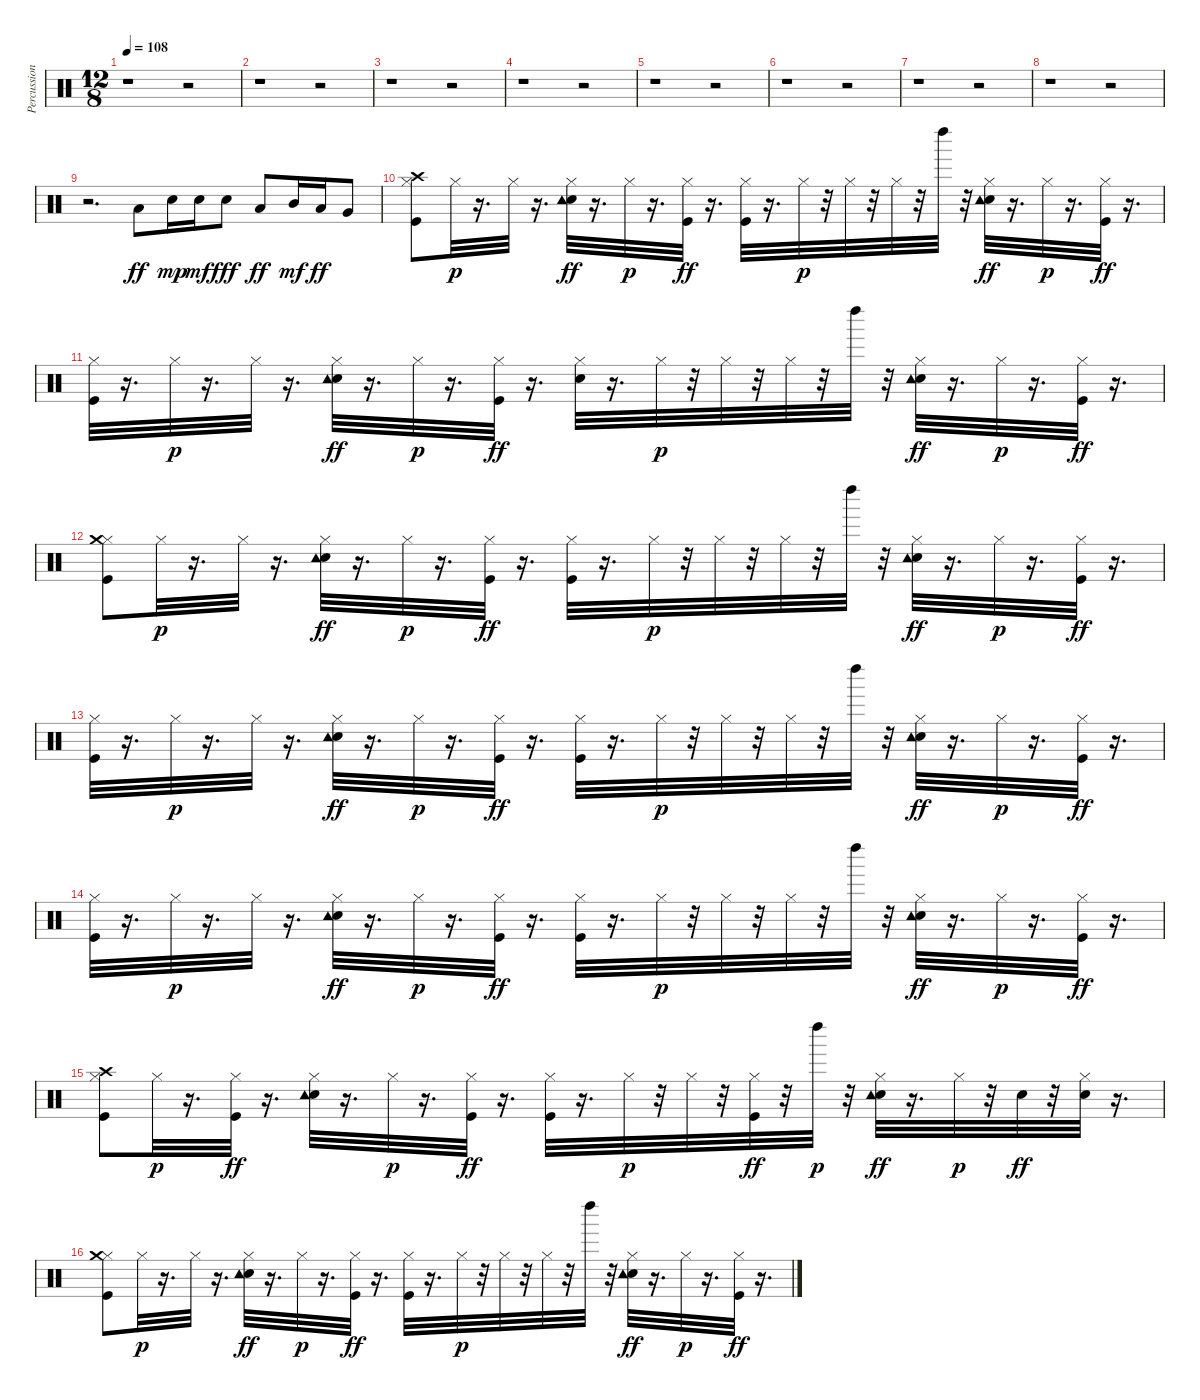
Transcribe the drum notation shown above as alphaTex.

\track ("Percussion" "Percussion") {instrument percussion}
\staff {score}
\articulation defaults
\ts (12 8)
\tempo 108
\clef neutral
\ks c
r.1{dy ff} r.2 |
r.1 r.2 |
r.1 r.2 |
r.1 r.2 |
r.1 r.2 |
r.1 r.2 |
r.1 r.2 |
r.1 r.2 |
r.2{d} "Low Tom (hit)".8 "Snare (hit) 2".16{dy mp} "Snare (hit) 2".16{dy mf} "Snare (hit) 2".8{dy fff} "Low Tom (hit)".8{dy ff} "Mid Tom (hit)".16{dy mf} "Low Tom (hit)".16{dy ff} "Very Low Tom (hit)".8 |
("Hi-Hat (closed)" "Kick (hit)" "Crash high (hit)").8 "Hi-Hat (closed)".32{dy p} r.16{d} "Hi-Hat (closed)".32 r.16{d} ("Hi-Hat (closed)" "Snare (hit) 2" "Tambourine (hit)").32{dy ff} r.16{d} "Hi-Hat (closed)".32{dy p} r.16{d} ("Hi-Hat (closed)" "Kick (hit)").32{dy ff} r.16{d} ("Hi-Hat (closed)" "Kick (hit)").32 r.16{d} "Hi-Hat (closed)".32{dy p} r.32 "Hi-Hat (closed)".32 r.32 "Hi-Hat (closed)".32 r.32 "Left Maraca (hit)".32 r.32 ("Hi-Hat (closed)" "Snare (hit) 2" "Tambourine (hit)").32{dy ff} r.16{d} "Hi-Hat (closed)".32{dy p} r.16{d} ("Hi-Hat (closed)" "Kick (hit)").32{dy ff} r.16{d} |
("Hi-Hat (closed)" "Kick (hit)").32 r.16{d} "Hi-Hat (closed)".32{dy p} r.16{d} "Hi-Hat (closed)".32 r.16{d} ("Hi-Hat (closed)" "Snare (hit) 2" "Tambourine (hit)").32{dy ff} r.16{d} "Hi-Hat (closed)".32{dy p} r.16{d} ("Hi-Hat (closed)" "Kick (hit)").32{dy ff} r.16{d} ("Hi-Hat (closed)" "Snare (hit) 2").32 r.16{d} "Hi-Hat (closed)".32{dy p} r.32 "Hi-Hat (closed)".32 r.32 "Hi-Hat (closed)".32 r.32 "Left Maraca (hit)".32 r.32 ("Hi-Hat (closed)" "Snare (hit) 2" "Tambourine (hit)").32{dy ff} r.16{d} "Hi-Hat (closed)".32{dy p} r.16{d} ("Hi-Hat (closed)" "Kick (hit)").32{dy ff} r.16{d} |
("Hi-Hat (closed)" "Kick (hit)" "Crash medium (hit)").8 "Hi-Hat (closed)".32{dy p} r.16{d} "Hi-Hat (closed)".32 r.16{d} ("Hi-Hat (closed)" "Snare (hit) 2" "Tambourine (hit)").32{dy ff} r.16{d} "Hi-Hat (closed)".32{dy p} r.16{d} ("Hi-Hat (closed)" "Kick (hit)").32{dy ff} r.16{d} ("Hi-Hat (closed)" "Kick (hit)").32 r.16{d} "Hi-Hat (closed)".32{dy p} r.32 "Hi-Hat (closed)".32 r.32 "Hi-Hat (closed)".32 r.32 "Left Maraca (hit)".32 r.32 ("Hi-Hat (closed)" "Snare (hit) 2" "Tambourine (hit)").32{dy ff} r.16{d} "Hi-Hat (closed)".32{dy p} r.16{d} ("Hi-Hat (closed)" "Kick (hit)").32{dy ff} r.16{d} |
("Hi-Hat (closed)" "Kick (hit)").32 r.16{d} "Hi-Hat (closed)".32{dy p} r.16{d} "Hi-Hat (closed)".32 r.16{d} ("Hi-Hat (closed)" "Snare (hit) 2" "Tambourine (hit)").32{dy ff} r.16{d} "Hi-Hat (closed)".32{dy p} r.16{d} ("Hi-Hat (closed)" "Kick (hit)").32{dy ff} r.16{d} ("Hi-Hat (closed)" "Kick (hit)").32 r.16{d} "Hi-Hat (closed)".32{dy p} r.32 "Hi-Hat (closed)".32 r.32 "Hi-Hat (closed)".32 r.32 "Left Maraca (hit)".32 r.32 ("Hi-Hat (closed)" "Snare (hit) 2" "Tambourine (hit)").32{dy ff} r.16{d} "Hi-Hat (closed)".32{dy p} r.16{d} ("Hi-Hat (closed)" "Kick (hit)").32{dy ff} r.16{d} |
("Hi-Hat (closed)" "Kick (hit)").32 r.16{d} "Hi-Hat (closed)".32{dy p} r.16{d} "Hi-Hat (closed)".32 r.16{d} ("Hi-Hat (closed)" "Snare (hit) 2" "Tambourine (hit)").32{dy ff} r.16{d} "Hi-Hat (closed)".32{dy p} r.16{d} ("Hi-Hat (closed)" "Kick (hit)").32{dy ff} r.16{d} ("Hi-Hat (closed)" "Kick (hit)").32 r.16{d} "Hi-Hat (closed)".32{dy p} r.32 "Hi-Hat (closed)".32 r.32 "Hi-Hat (closed)".32 r.32 "Left Maraca (hit)".32 r.32 ("Hi-Hat (closed)" "Snare (hit) 2" "Tambourine (hit)").32{dy ff} r.16{d} "Hi-Hat (closed)".32{dy p} r.16{d} ("Hi-Hat (closed)" "Kick (hit)").32{dy ff} r.16{d} |
("Hi-Hat (closed)" "Kick (hit)" "Crash high (hit)").8 "Hi-Hat (closed)".32{dy p} r.16{d} ("Hi-Hat (closed)" "Kick (hit)").32{dy ff} r.16{d} ("Hi-Hat (closed)" "Snare (hit) 2" "Tambourine (hit)").32 r.16{d} "Hi-Hat (closed)".32{dy p} r.16{d} ("Hi-Hat (closed)" "Kick (hit)").32{dy ff} r.16{d} ("Hi-Hat (closed)" "Kick (hit)").32 r.16{d} "Hi-Hat (closed)".32{dy p} r.32 "Hi-Hat (closed)".32 r.32 ("Hi-Hat (closed)" "Kick (hit)").32{dy ff} r.32 "Left Maraca (hit)".32{dy p} r.32 ("Hi-Hat (closed)" "Snare (hit) 2" "Tambourine (hit)").32{dy ff} r.16{d} "Hi-Hat (closed)".32{dy p} r.32 "Snare (hit) 2".32{dy ff} r.32 ("Hi-Hat (closed)" "Snare (hit) 2").32 r.16{d} |
("Hi-Hat (closed)" "Kick (hit)" "Crash medium (hit)").8 "Hi-Hat (closed)".32{dy p} r.16{d} "Hi-Hat (closed)".32 r.16{d} ("Hi-Hat (closed)" "Snare (hit) 2" "Tambourine (hit)").32{dy ff} r.16{d} "Hi-Hat (closed)".32{dy p} r.16{d} ("Hi-Hat (closed)" "Kick (hit)").32{dy ff} r.16{d} ("Hi-Hat (closed)" "Kick (hit)").32 r.16{d} "Hi-Hat (closed)".32{dy p} r.32 "Hi-Hat (closed)".32 r.32 "Hi-Hat (closed)".32 r.32 "Left Maraca (hit)".32 r.32 ("Hi-Hat (closed)" "Snare (hit) 2" "Tambourine (hit)").32{dy ff} r.16{d} "Hi-Hat (closed)".32{dy p} r.16{d} ("Hi-Hat (closed)" "Kick (hit)").32{dy ff} r.16{d}
